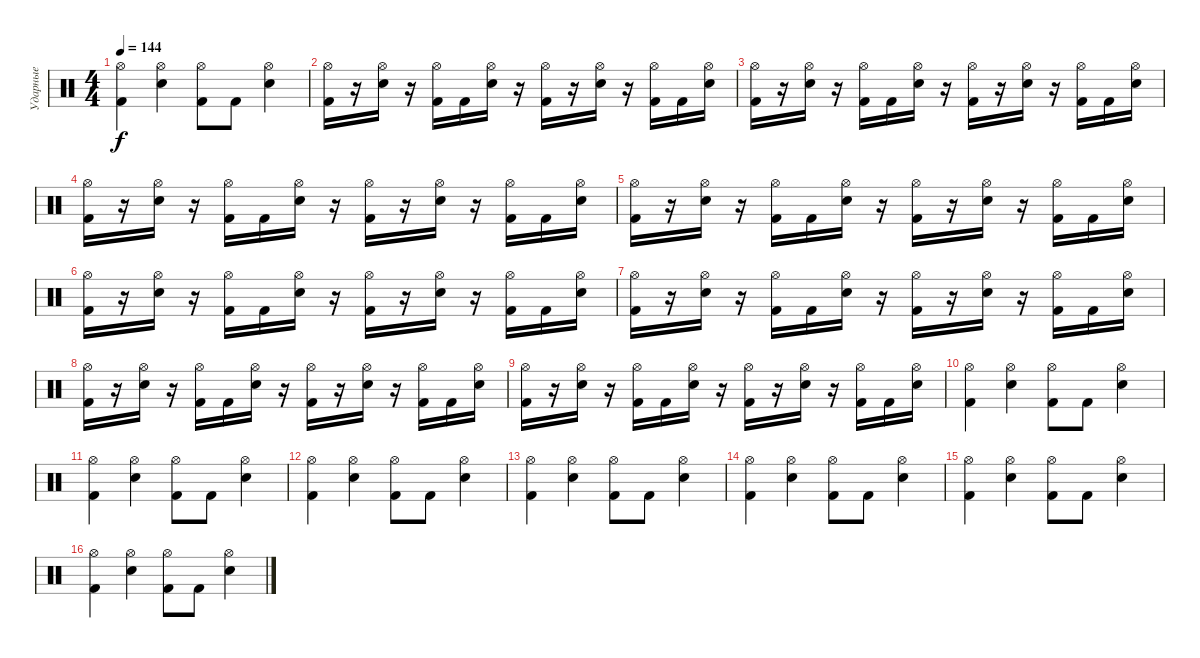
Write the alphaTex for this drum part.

\track ("Ударные" "Ударные") {instrument percussion}
\staff {score}
\articulation defaults
\ts (4 4)
\tempo 144
\clef neutral
\ks c
("Hi-Hat (open)" "Kick (hit) 2").4{dy f} ("Hi-Hat (open)" "Snare (hit) 2").4 ("Hi-Hat (open)" "Kick (hit) 2").8 "Kick (hit) 2".8 ("Hi-Hat (open)" "Snare (hit) 2").4 |
("Hi-Hat (open)" "Kick (hit) 2").16 r.16 ("Hi-Hat (open)" "Electric Snare (hit)").16 r.16 ("Hi-Hat (open)" "Kick (hit) 2").16 "Kick (hit) 2".16 ("Hi-Hat (open)" "Electric Snare (hit)").16 r.16 ("Hi-Hat (open)" "Kick (hit) 2").16 r.16 ("Hi-Hat (open)" "Electric Snare (hit)").16 r.16 ("Hi-Hat (open)" "Kick (hit) 2").16 "Kick (hit) 2".16 ("Hi-Hat (open)" "Electric Snare (hit)").16 |
("Hi-Hat (open)" "Kick (hit) 2").16 r.16 ("Hi-Hat (open)" "Electric Snare (hit)").16 r.16 ("Hi-Hat (open)" "Kick (hit) 2").16 "Kick (hit) 2".16 ("Hi-Hat (open)" "Electric Snare (hit)").16 r.16 ("Hi-Hat (open)" "Kick (hit) 2").16 r.16 ("Hi-Hat (open)" "Electric Snare (hit)").16 r.16 ("Hi-Hat (open)" "Kick (hit) 2").16 "Kick (hit) 2".16 ("Hi-Hat (open)" "Electric Snare (hit)").16 |
("Hi-Hat (open)" "Kick (hit) 2").16 r.16 ("Hi-Hat (open)" "Electric Snare (hit)").16 r.16 ("Hi-Hat (open)" "Kick (hit) 2").16 "Kick (hit) 2".16 ("Hi-Hat (open)" "Electric Snare (hit)").16 r.16 ("Hi-Hat (open)" "Kick (hit) 2").16 r.16 ("Hi-Hat (open)" "Electric Snare (hit)").16 r.16 ("Hi-Hat (open)" "Kick (hit) 2").16 "Kick (hit) 2".16 ("Hi-Hat (open)" "Electric Snare (hit)").16 |
("Hi-Hat (open)" "Kick (hit) 2").16 r.16 ("Hi-Hat (open)" "Electric Snare (hit)").16 r.16 ("Hi-Hat (open)" "Kick (hit) 2").16 "Kick (hit) 2".16 ("Hi-Hat (open)" "Electric Snare (hit)").16 r.16 ("Hi-Hat (open)" "Kick (hit) 2").16 r.16 ("Hi-Hat (open)" "Electric Snare (hit)").16 r.16 ("Hi-Hat (open)" "Kick (hit) 2").16 "Kick (hit) 2".16 ("Hi-Hat (open)" "Electric Snare (hit)").16 |
("Hi-Hat (open)" "Kick (hit) 2").16 r.16 ("Hi-Hat (open)" "Electric Snare (hit)").16 r.16 ("Hi-Hat (open)" "Kick (hit) 2").16 "Kick (hit) 2".16 ("Hi-Hat (open)" "Electric Snare (hit)").16 r.16 ("Hi-Hat (open)" "Kick (hit) 2").16 r.16 ("Hi-Hat (open)" "Electric Snare (hit)").16 r.16 ("Hi-Hat (open)" "Kick (hit) 2").16 "Kick (hit) 2".16 ("Hi-Hat (open)" "Electric Snare (hit)").16 |
("Hi-Hat (open)" "Kick (hit) 2").16 r.16 ("Hi-Hat (open)" "Electric Snare (hit)").16 r.16 ("Hi-Hat (open)" "Kick (hit) 2").16 "Kick (hit) 2".16 ("Hi-Hat (open)" "Electric Snare (hit)").16 r.16 ("Hi-Hat (open)" "Kick (hit) 2").16 r.16 ("Hi-Hat (open)" "Electric Snare (hit)").16 r.16 ("Hi-Hat (open)" "Kick (hit) 2").16 "Kick (hit) 2".16 ("Hi-Hat (open)" "Electric Snare (hit)").16 |
("Hi-Hat (open)" "Kick (hit) 2").16 r.16 ("Hi-Hat (open)" "Electric Snare (hit)").16 r.16 ("Hi-Hat (open)" "Kick (hit) 2").16 "Kick (hit) 2".16 ("Hi-Hat (open)" "Electric Snare (hit)").16 r.16 ("Hi-Hat (open)" "Kick (hit) 2").16 r.16 ("Hi-Hat (open)" "Electric Snare (hit)").16 r.16 ("Hi-Hat (open)" "Kick (hit) 2").16 "Kick (hit) 2".16 ("Hi-Hat (open)" "Electric Snare (hit)").16 |
("Hi-Hat (open)" "Kick (hit) 2").16 r.16 ("Hi-Hat (open)" "Electric Snare (hit)").16 r.16 ("Hi-Hat (open)" "Kick (hit) 2").16 "Kick (hit) 2".16 ("Hi-Hat (open)" "Electric Snare (hit)").16 r.16 ("Hi-Hat (open)" "Kick (hit) 2").16 r.16 ("Hi-Hat (open)" "Electric Snare (hit)").16 r.16 ("Hi-Hat (open)" "Kick (hit) 2").16 "Kick (hit) 2".16 ("Hi-Hat (open)" "Electric Snare (hit)").16 |
("Hi-Hat (open)" "Kick (hit) 2").4 ("Hi-Hat (open)" "Snare (hit) 2").4 ("Hi-Hat (open)" "Kick (hit) 2").8 "Kick (hit) 2".8 ("Hi-Hat (open)" "Snare (hit) 2").4 |
("Hi-Hat (open)" "Kick (hit) 2").4 ("Hi-Hat (open)" "Snare (hit) 2").4 ("Hi-Hat (open)" "Kick (hit) 2").8 "Kick (hit) 2".8 ("Hi-Hat (open)" "Snare (hit) 2").4 |
("Hi-Hat (open)" "Kick (hit) 2").4 ("Hi-Hat (open)" "Snare (hit) 2").4 ("Hi-Hat (open)" "Kick (hit) 2").8 "Kick (hit) 2".8 ("Hi-Hat (open)" "Snare (hit) 2").4 |
("Hi-Hat (open)" "Kick (hit) 2").4 ("Hi-Hat (open)" "Snare (hit) 2").4 ("Hi-Hat (open)" "Kick (hit) 2").8 "Kick (hit) 2".8 ("Hi-Hat (open)" "Snare (hit) 2").4 |
("Hi-Hat (open)" "Kick (hit) 2").4 ("Hi-Hat (open)" "Snare (hit) 2").4 ("Hi-Hat (open)" "Kick (hit) 2").8 "Kick (hit) 2".8 ("Hi-Hat (open)" "Snare (hit) 2").4 |
("Hi-Hat (open)" "Kick (hit) 2").4 ("Hi-Hat (open)" "Snare (hit) 2").4 ("Hi-Hat (open)" "Kick (hit) 2").8 "Kick (hit) 2".8 ("Hi-Hat (open)" "Snare (hit) 2").4 |
("Hi-Hat (open)" "Kick (hit) 2").4 ("Hi-Hat (open)" "Snare (hit) 2").4 ("Hi-Hat (open)" "Kick (hit) 2").8 "Kick (hit) 2".8 ("Hi-Hat (open)" "Snare (hit) 2").4
